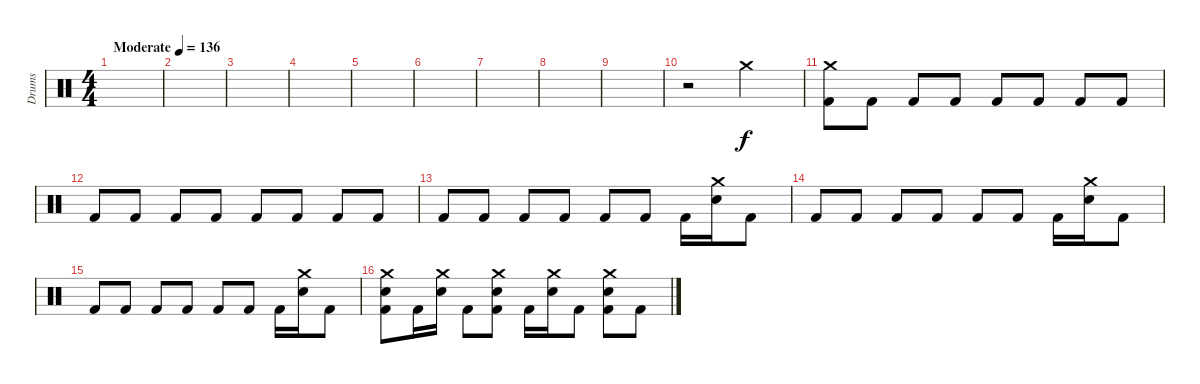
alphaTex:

\track ("Drums" "Drums") {instrument percussion}
\staff {score}
\articulation defaults
\ts (4 4)
\tempo (136 "Moderate")
\clef neutral
\ks c
|
|
|
|
|
|
|
|
|
r.2 "Crash medium (hit)".2 |
("Crash medium (hit)" "Kick (hit) 2").8 "Kick (hit) 2".8 "Kick (hit) 2".8 "Kick (hit) 2".8 "Kick (hit) 2".8 "Kick (hit) 2".8 "Kick (hit) 2".8 "Kick (hit) 2".8 |
"Kick (hit) 2".8 "Kick (hit) 2".8 "Kick (hit) 2".8 "Kick (hit) 2".8 "Kick (hit) 2".8 "Kick (hit) 2".8 "Kick (hit) 2".8 "Kick (hit) 2".8 |
"Kick (hit) 2".8 "Kick (hit) 2".8 "Kick (hit) 2".8 "Kick (hit) 2".8 "Kick (hit) 2".8 "Kick (hit) 2".8 "Kick (hit) 2".16 ("Crash medium (hit)" "Electric Snare (hit)").16 "Kick (hit) 2".8 |
"Kick (hit) 2".8 "Kick (hit) 2".8 "Kick (hit) 2".8 "Kick (hit) 2".8 "Kick (hit) 2".8 "Kick (hit) 2".8 "Kick (hit) 2".16 ("Crash medium (hit)" "Electric Snare (hit)").16 "Kick (hit) 2".8 |
"Kick (hit) 2".8 "Kick (hit) 2".8 "Kick (hit) 2".8 "Kick (hit) 2".8 "Kick (hit) 2".8 "Kick (hit) 2".8 "Kick (hit) 2".16 ("Crash medium (hit)" "Electric Snare (hit)").16 "Kick (hit) 2".8 |
("Crash medium (hit)" "Electric Snare (hit)" "Kick (hit) 2").8 "Kick (hit) 2".16 ("Crash medium (hit)" "Electric Snare (hit)").16 "Kick (hit) 2".8 ("Crash medium (hit)" "Electric Snare (hit)" "Kick (hit) 2").8 "Kick (hit) 2".16 ("Crash medium (hit)" "Electric Snare (hit)").16 "Kick (hit) 2".8 ("Crash medium (hit)" "Electric Snare (hit)" "Kick (hit) 2").8 "Kick (hit) 2".8
